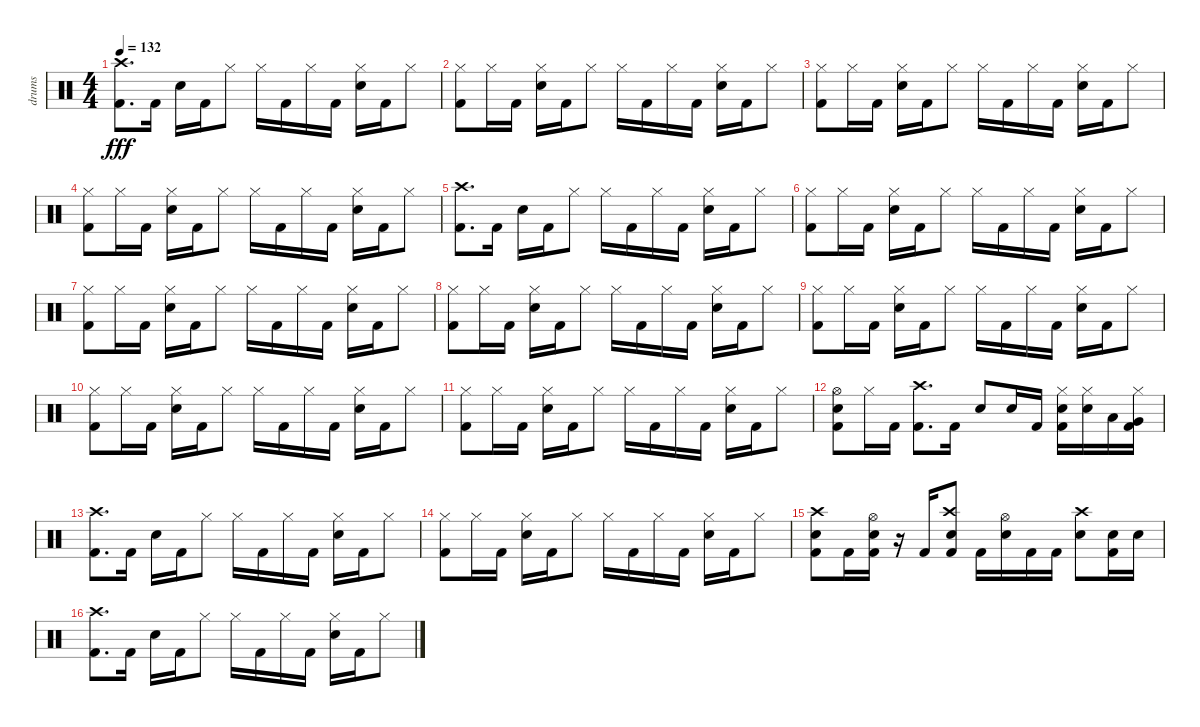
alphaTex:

\track ("drums" "drums") {instrument percussion}
\staff {score}
\articulation defaults
\ts (4 4)
\tempo 132
\clef neutral
\ks c
("Kick (hit) 2" "Crash high (hit)").8{d dy fff} "Kick (hit) 2".16 "Snare (hit) 2".16 "Kick (hit) 2".16 "Hi-Hat (closed)".8 "Hi-Hat (closed)".16 "Kick (hit) 2".16 "Hi-Hat (closed)".16 "Kick (hit) 2".16 ("Snare (hit) 2" "Hi-Hat (closed)").16 "Kick (hit) 2".16 "Hi-Hat (closed)".8 |
("Kick (hit) 2" "Hi-Hat (closed)").8 "Hi-Hat (closed)".16 "Kick (hit) 2".16 ("Snare (hit) 2" "Hi-Hat (closed)").16 "Kick (hit) 2".16 "Hi-Hat (closed)".8 "Hi-Hat (closed)".16 "Kick (hit) 2".16 "Hi-Hat (closed)".16 "Kick (hit) 2".16 ("Snare (hit) 2" "Hi-Hat (closed)").16 "Kick (hit) 2".16 "Hi-Hat (closed)".8 |
("Kick (hit) 2" "Hi-Hat (closed)").8 "Hi-Hat (closed)".16 "Kick (hit) 2".16 ("Snare (hit) 2" "Hi-Hat (closed)").16 "Kick (hit) 2".16 "Hi-Hat (closed)".8 "Hi-Hat (closed)".16 "Kick (hit) 2".16 "Hi-Hat (closed)".16 "Kick (hit) 2".16 ("Snare (hit) 2" "Hi-Hat (closed)").16 "Kick (hit) 2".16 "Hi-Hat (closed)".8 |
("Kick (hit) 2" "Hi-Hat (closed)").8 "Hi-Hat (closed)".16 "Kick (hit) 2".16 ("Snare (hit) 2" "Hi-Hat (closed)").16 "Kick (hit) 2".16 "Hi-Hat (closed)".8 "Hi-Hat (closed)".16 "Kick (hit) 2".16 "Hi-Hat (closed)".16 "Kick (hit) 2".16 ("Snare (hit) 2" "Hi-Hat (closed)").16 "Kick (hit) 2".16 "Hi-Hat (closed)".8 |
("Kick (hit) 2" "Crash high (hit)").8{d} "Kick (hit) 2".16 "Snare (hit) 2".16 "Kick (hit) 2".16 "Hi-Hat (closed)".8 "Hi-Hat (closed)".16 "Kick (hit) 2".16 "Hi-Hat (closed)".16 "Kick (hit) 2".16 ("Snare (hit) 2" "Hi-Hat (closed)").16 "Kick (hit) 2".16 "Hi-Hat (closed)".8 |
("Kick (hit) 2" "Hi-Hat (closed)").8 "Hi-Hat (closed)".16 "Kick (hit) 2".16 ("Snare (hit) 2" "Hi-Hat (closed)").16 "Kick (hit) 2".16 "Hi-Hat (closed)".8 "Hi-Hat (closed)".16 "Kick (hit) 2".16 "Hi-Hat (closed)".16 "Kick (hit) 2".16 ("Snare (hit) 2" "Hi-Hat (closed)").16 "Kick (hit) 2".16 "Hi-Hat (closed)".8 |
("Kick (hit) 2" "Hi-Hat (closed)").8 "Hi-Hat (closed)".16 "Kick (hit) 2".16 ("Snare (hit) 2" "Hi-Hat (closed)").16 "Kick (hit) 2".16 "Hi-Hat (closed)".8 "Hi-Hat (closed)".16 "Kick (hit) 2".16 "Hi-Hat (closed)".16 "Kick (hit) 2".16 ("Snare (hit) 2" "Hi-Hat (closed)").16 "Kick (hit) 2".16 "Hi-Hat (closed)".8 |
("Kick (hit) 2" "Hi-Hat (closed)").8 "Hi-Hat (closed)".16 "Kick (hit) 2".16 ("Snare (hit) 2" "Hi-Hat (closed)").16 "Kick (hit) 2".16 "Hi-Hat (closed)".8 "Hi-Hat (closed)".16 "Kick (hit) 2".16 "Hi-Hat (closed)".16 "Kick (hit) 2".16 ("Snare (hit) 2" "Hi-Hat (closed)").16 "Kick (hit) 2".16 "Hi-Hat (closed)".8 |
("Kick (hit) 2" "Hi-Hat (closed)").8 "Hi-Hat (closed)".16 "Kick (hit) 2".16 ("Snare (hit) 2" "Hi-Hat (closed)").16 "Kick (hit) 2".16 "Hi-Hat (closed)".8 "Hi-Hat (closed)".16 "Kick (hit) 2".16 "Hi-Hat (closed)".16 "Kick (hit) 2".16 ("Snare (hit) 2" "Hi-Hat (closed)").16 "Kick (hit) 2".16 "Hi-Hat (closed)".8 |
("Kick (hit) 2" "Hi-Hat (closed)").8 "Hi-Hat (closed)".16 "Kick (hit) 2".16 ("Snare (hit) 2" "Hi-Hat (closed)").16 "Kick (hit) 2".16 "Hi-Hat (closed)".8 "Hi-Hat (closed)".16 "Kick (hit) 2".16 "Hi-Hat (closed)".16 "Kick (hit) 2".16 ("Snare (hit) 2" "Hi-Hat (closed)").16 "Kick (hit) 2".16 "Hi-Hat (closed)".8 |
("Kick (hit) 2" "Hi-Hat (closed)").8 "Hi-Hat (closed)".16 "Kick (hit) 2".16 ("Snare (hit) 2" "Hi-Hat (closed)").16 "Kick (hit) 2".16 "Hi-Hat (closed)".8 "Hi-Hat (closed)".16 "Kick (hit) 2".16 "Hi-Hat (closed)".16 "Kick (hit) 2".16 ("Snare (hit) 2" "Hi-Hat (closed)").16 "Kick (hit) 2".16 "Hi-Hat (closed)".8 |
("Kick (hit) 2" "Snare (hit) 2" "Hi-Hat (open)").8 "Hi-Hat (closed)".16 "Kick (hit) 2".16 ("Kick (hit) 2" "Crash high (hit)").8{d} "Kick (hit) 2".16 "Snare (hit) 2".8 "Snare (hit) 2".16 "Kick (hit) 2".16 ("Kick (hit) 2" "Snare (hit) 2" "Hi-Hat (closed)").16 ("Snare (hit) 2" "Hi-Hat (closed)").16 "Low Tom (hit)".16 ("Kick (hit) 2" "Very Low Tom (hit)" "Hi-Hat (closed)").16 |
("Kick (hit) 2" "Crash high (hit)").8{d} "Kick (hit) 2".16 "Snare (hit) 2".16 "Kick (hit) 2".16 "Hi-Hat (closed)".8 "Hi-Hat (closed)".16 "Kick (hit) 2".16 "Hi-Hat (closed)".16 "Kick (hit) 2".16 ("Snare (hit) 2" "Hi-Hat (closed)").16 "Kick (hit) 2".16 "Hi-Hat (closed)".8 |
("Kick (hit) 2" "Hi-Hat (closed)").8 "Hi-Hat (closed)".16 "Kick (hit) 2".16 ("Snare (hit) 2" "Hi-Hat (closed)").16 "Kick (hit) 2".16 "Hi-Hat (closed)".8 "Hi-Hat (closed)".16 "Kick (hit) 2".16 "Hi-Hat (closed)".16 "Kick (hit) 2".16 ("Snare (hit) 2" "Hi-Hat (closed)").16 "Kick (hit) 2".16 "Hi-Hat (closed)".8 |
("Snare (hit) 2" "Crash high (hit)" "Kick (hit) 2").8 "Kick (hit) 2".16 ("Snare (hit) 2" "Kick (hit) 2" "Hi-Hat (open)").16 r.16 "Kick (hit) 2".16 ("Crash high (hit)" "Snare (hit) 2" "Kick (hit) 2").8 "Kick (hit) 2".16 ("Snare (hit) 2" "Hi-Hat (open)").16 "Kick (hit) 2".16 "Kick (hit) 2".16 ("Snare (hit) 2" "Crash high (hit)").8 ("Snare (hit) 2" "Kick (hit) 2").16 "Snare (hit) 2".16 |
("Kick (hit) 2" "Crash high (hit)").8{d} "Kick (hit) 2".16 "Snare (hit) 2".16 "Kick (hit) 2".16 "Hi-Hat (closed)".8 "Hi-Hat (closed)".16 "Kick (hit) 2".16 "Hi-Hat (closed)".16 "Kick (hit) 2".16 ("Snare (hit) 2" "Hi-Hat (closed)").16 "Kick (hit) 2".16 "Hi-Hat (closed)".8
